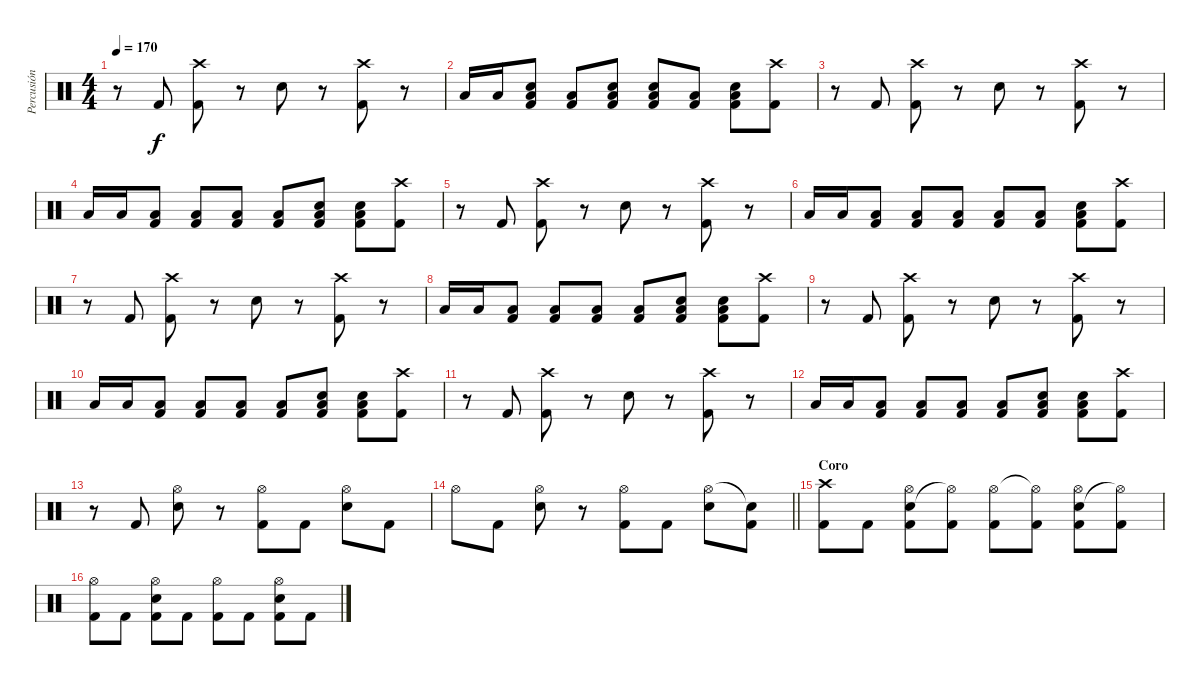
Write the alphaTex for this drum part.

\track ("Percusión" "Percusión") {instrument percussion}
\staff {score}
\articulation defaults
\ts (4 4)
\tempo 170
\clef neutral
\ks c
r.8{dy f} "Kick (hit) 2".8 ("Kick (hit) 2" "Crash high (hit)").8 r.8 "Snare (hit) 2".8 r.8 ("Kick (hit) 2" "Crash high (hit)").8 r.8 |
"Low Tom (hit)".16 "Low Tom (hit)".16 ("Low Floor Tom (hit)" "Kick (hit) 2" "Snare (hit) 2").8 ("Low Floor Tom (hit)" "Kick (hit) 2").8 ("Low Floor Tom (hit)" "Kick (hit) 2" "Snare (hit) 2").8 ("Low Floor Tom (hit)" "Kick (hit) 2" "Snare (hit) 2").8 ("Low Floor Tom (hit)" "Kick (hit) 2").8 ("Low Floor Tom (hit)" "Kick (hit) 2" "Snare (hit) 2").8 ("Kick (hit) 2" "Crash high (hit)").8 |
r.8 "Kick (hit) 2".8 ("Kick (hit) 2" "Crash high (hit)").8 r.8 "Snare (hit) 2".8 r.8 ("Kick (hit) 2" "Crash high (hit)").8 r.8 |
"Low Tom (hit)".16 "Low Tom (hit)".16 ("Low Floor Tom (hit)" "Kick (hit) 2").8 ("Low Floor Tom (hit)" "Kick (hit) 2").8 ("Low Floor Tom (hit)" "Kick (hit) 2").8 ("Low Floor Tom (hit)" "Kick (hit) 2").8 ("Low Floor Tom (hit)" "Kick (hit) 2" "Snare (hit) 2").8 ("Snare (hit) 2" "Kick (hit) 2" "Low Floor Tom (hit)").8 ("Kick (hit) 2" "Crash high (hit)").8 |
r.8 "Kick (hit) 2".8 ("Kick (hit) 2" "Crash high (hit)").8 r.8 "Snare (hit) 2".8 r.8 ("Kick (hit) 2" "Crash high (hit)").8 r.8 |
"Low Tom (hit)".16 "Low Tom (hit)".16 ("Low Floor Tom (hit)" "Kick (hit) 2").8 ("Low Floor Tom (hit)" "Kick (hit) 2").8 ("Low Floor Tom (hit)" "Kick (hit) 2").8 ("Low Floor Tom (hit)" "Kick (hit) 2").8 ("Low Floor Tom (hit)" "Kick (hit) 2").8 ("Low Floor Tom (hit)" "Kick (hit) 2" "Snare (hit) 2").8 ("Kick (hit) 2" "Crash high (hit)").8 |
r.8 "Kick (hit) 2".8 ("Kick (hit) 2" "Crash high (hit)").8 r.8 "Snare (hit) 2".8 r.8 ("Kick (hit) 2" "Crash high (hit)").8 r.8 |
"Low Tom (hit)".16 "Low Tom (hit)".16 ("Low Floor Tom (hit)" "Kick (hit) 2").8 ("Low Floor Tom (hit)" "Kick (hit) 2").8 ("Low Floor Tom (hit)" "Kick (hit) 2").8 ("Low Floor Tom (hit)" "Kick (hit) 2").8 ("Low Floor Tom (hit)" "Kick (hit) 2" "Snare (hit) 2").8 ("Snare (hit) 2" "Kick (hit) 2" "Low Floor Tom (hit)").8 ("Kick (hit) 2" "Crash high (hit)").8 |
r.8 "Kick (hit) 2".8 ("Kick (hit) 2" "Crash high (hit)").8 r.8 "Snare (hit) 2".8 r.8 ("Kick (hit) 2" "Crash high (hit)").8 r.8 |
"Low Tom (hit)".16 "Low Tom (hit)".16 ("Low Floor Tom (hit)" "Kick (hit) 2").8 ("Low Floor Tom (hit)" "Kick (hit) 2").8 ("Low Floor Tom (hit)" "Kick (hit) 2").8 ("Low Floor Tom (hit)" "Kick (hit) 2").8 ("Low Floor Tom (hit)" "Kick (hit) 2" "Snare (hit) 2").8 ("Snare (hit) 2" "Kick (hit) 2" "Low Floor Tom (hit)").8 ("Kick (hit) 2" "Crash high (hit)").8 |
r.8 "Kick (hit) 2".8 ("Kick (hit) 2" "Crash high (hit)").8 r.8 "Snare (hit) 2".8 r.8 ("Kick (hit) 2" "Crash high (hit)").8 r.8 |
"Low Tom (hit)".16 "Low Tom (hit)".16 ("Low Floor Tom (hit)" "Kick (hit) 2").8 ("Low Floor Tom (hit)" "Kick (hit) 2").8 ("Low Floor Tom (hit)" "Kick (hit) 2").8 ("Low Floor Tom (hit)" "Kick (hit) 2").8 ("Low Floor Tom (hit)" "Kick (hit) 2" "Snare (hit) 2").8 ("Snare (hit) 2" "Kick (hit) 2" "Low Floor Tom (hit)").8 ("Kick (hit) 2" "Crash high (hit)").8 |
r.8 "Kick (hit) 2".8 ("Snare (hit) 2" "Hi-Hat (open)").8 r.8 ("Kick (hit) 2" "Hi-Hat (open)").8 "Kick (hit) 2".8 ("Snare (hit) 2" "Hi-Hat (open)").8 "Kick (hit) 2".8 |
\barLineRight lightlight "Hi-Hat (open)".8 "Kick (hit) 2".8
("Snare (hit) 2" "Hi-Hat (open)").8 r.8 ("Kick (hit) 2" "Hi-Hat (open)").8 "Kick (hit) 2".8 ("Snare (hit) 2" "Hi-Hat (open)").8 ("Kick (hit) 2" "Snare (hit)"{t}).8 |
\section ("" "Coro")
("Kick (hit) 2" "Crash high (hit)").8 "Kick (hit) 2".8 ("Kick (hit) 2" "Snare (hit) 2" "Hi-Hat (open)").8 ("Kick (hit) 2" "Hi-Hat (open)"{t}).8 ("Kick (hit) 2" "Hi-Hat (open)").8 ("Kick (hit) 2" "Hi-Hat (open)"{t}).8 ("Kick (hit) 2" "Snare (hit) 2" "Hi-Hat (open)").8 ("Kick (hit) 2" "Hi-Hat (open)"{t}).8 |
("Kick (hit) 2" "Hi-Hat (open)").8 "Kick (hit) 2".8 ("Kick (hit) 2" "Snare (hit) 2" "Hi-Hat (open)").8 "Kick (hit) 2".8 ("Kick (hit) 2" "Hi-Hat (open)").8 "Kick (hit) 2".8 ("Kick (hit) 2" "Snare (hit) 2" "Hi-Hat (open)").8 "Kick (hit) 2".8
